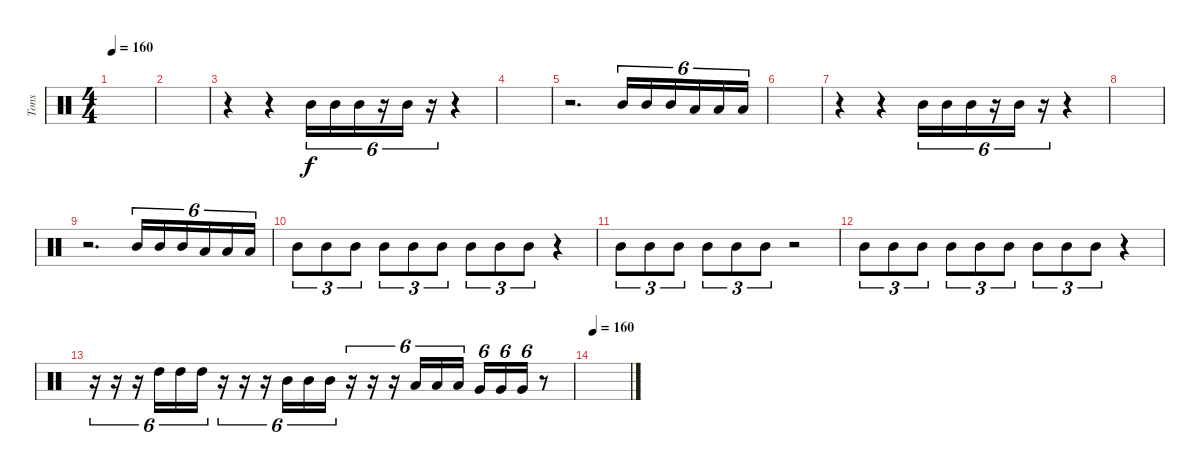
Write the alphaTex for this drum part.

\track ("Tons" "Tons") {instrument percussion}
\staff {score}
\articulation defaults
\ts (4 4)
\tempo 160
\clef neutral
\ks c
|
|
r.4 r.4 "Mid Tom (hit)".16{tu (6 4)} "Mid Tom (hit)".16{tu (6 4)} "Mid Tom (hit)".16{tu (6 4)} r.16{tu (6 4)} "Mid Tom (hit)".16{tu (6 4)} r.16{tu (6 4)} r.4 |
|
r.2{d} "Mid Tom (hit)".16{tu (6 4)} "Mid Tom (hit)".16{tu (6 4)} "Mid Tom (hit)".16{tu (6 4)} "Low Tom (hit)".16{tu (6 4)} "Low Tom (hit)".16{tu (6 4)} "Low Tom (hit)".16{tu (6 4)} |
|
r.4 r.4 "Mid Tom (hit)".16{tu (6 4)} "Mid Tom (hit)".16{tu (6 4)} "Mid Tom (hit)".16{tu (6 4)} r.16{tu (6 4)} "Mid Tom (hit)".16{tu (6 4)} r.16{tu (6 4)} r.4 |
|
r.2{d} "Mid Tom (hit)".16{tu (6 4)} "Mid Tom (hit)".16{tu (6 4)} "Mid Tom (hit)".16{tu (6 4)} "Low Tom (hit)".16{tu (6 4)} "Low Tom (hit)".16{tu (6 4)} "Low Tom (hit)".16{tu (6 4)} |
"Mid Tom (hit)".8{tu (3 2)} "Mid Tom (hit)".8{tu (3 2)} "Mid Tom (hit)".8{tu (3 2)} "Mid Tom (hit)".8{tu (3 2)} "Mid Tom (hit)".8{tu (3 2)} "Mid Tom (hit)".8{tu (3 2)} "Mid Tom (hit)".8{tu (3 2)} "Mid Tom (hit)".8{tu (3 2)} "Mid Tom (hit)".8{tu (3 2)} r.4 |
"Mid Tom (hit)".8{tu (3 2)} "Mid Tom (hit)".8{tu (3 2)} "Mid Tom (hit)".8{tu (3 2)} "Mid Tom (hit)".8{tu (3 2)} "Mid Tom (hit)".8{tu (3 2)} "Mid Tom (hit)".8{tu (3 2)} r.2 |
"Mid Tom (hit)".8{tu (3 2)} "Mid Tom (hit)".8{tu (3 2)} "Mid Tom (hit)".8{tu (3 2)} "Mid Tom (hit)".8{tu (3 2)} "Mid Tom (hit)".8{tu (3 2)} "Mid Tom (hit)".8{tu (3 2)} "Mid Tom (hit)".8{tu (3 2)} "Mid Tom (hit)".8{tu (3 2)} "Mid Tom (hit)".8{tu (3 2)} r.4 |
r.16{tu (6 4)} r.16{tu (6 4)} r.16{tu (6 4)} "High Tom (hit)".16{tu (6 4)} "High Tom (hit)".16{tu (6 4)} "High Tom (hit)".16{tu (6 4)} r.16{tu (6 4)} r.16{tu (6 4)} r.16{tu (6 4)} "Mid Tom (hit)".16{tu (6 4)} "Mid Tom (hit)".16{tu (6 4)} "Mid Tom (hit)".16{tu (6 4)} r.16{tu (6 4)} r.16{tu (6 4)} r.16{tu (6 4)} "Low Tom (hit)".16{tu (6 4)} "Low Tom (hit)".16{tu (6 4)} "Low Tom (hit)".16{tu (6 4)} "Very Low Tom (hit)".16{tu (6 4)} "Very Low Tom (hit)".16{tu (6 4)} "Very Low Tom (hit)".16{tu (6 4)} r.8 |
\tempo 160
